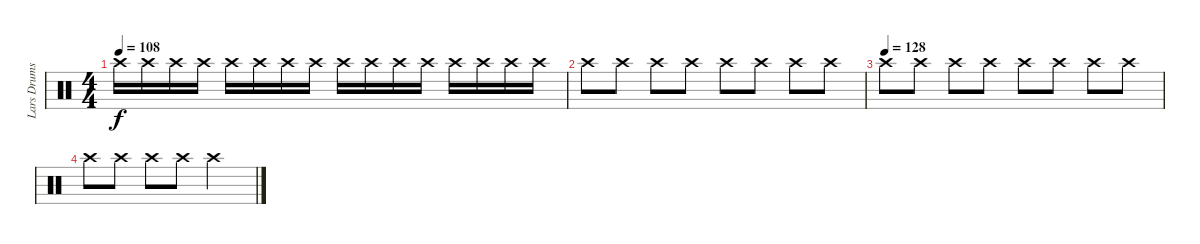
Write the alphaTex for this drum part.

\track ("Lars Drums" "Lars Drums") {instrument percussion}
\staff {score}
\articulation defaults
\ts (4 4)
\tempo 108
\clef neutral
\ks c "Crash high (hit)".16{dy f} "Crash high (hit)".16 "Crash high (hit)".16 "Crash high (hit)".16 "Crash high (hit)".16 "Crash high (hit)".16 "Crash high (hit)".16 "Crash high (hit)".16 "Crash high (hit)".16 "Crash high (hit)".16 "Crash high (hit)".16 "Crash high (hit)".16 "Crash high (hit)".16 "Crash high (hit)".16 "Crash high (hit)".16 "Crash high (hit)".16
|
"Crash high (hit)".8 "Crash high (hit)".8 "Crash high (hit)".8 "Crash high (hit)".8 "Crash high (hit)".8 "Crash high (hit)".8 "Crash high (hit)".8 "Crash high (hit)".8 |
\tempo (128)
"Crash high (hit)".8 "Crash high (hit)".8 "Crash high (hit)".8 "Crash high (hit)".8 "Crash high (hit)".8 "Crash high (hit)".8 "Crash high (hit)".8 "Crash high (hit)".8 |
"Crash high (hit)".8 "Crash high (hit)".8 "Crash high (hit)".8 "Crash high (hit)".8 "Crash high (hit)".2
